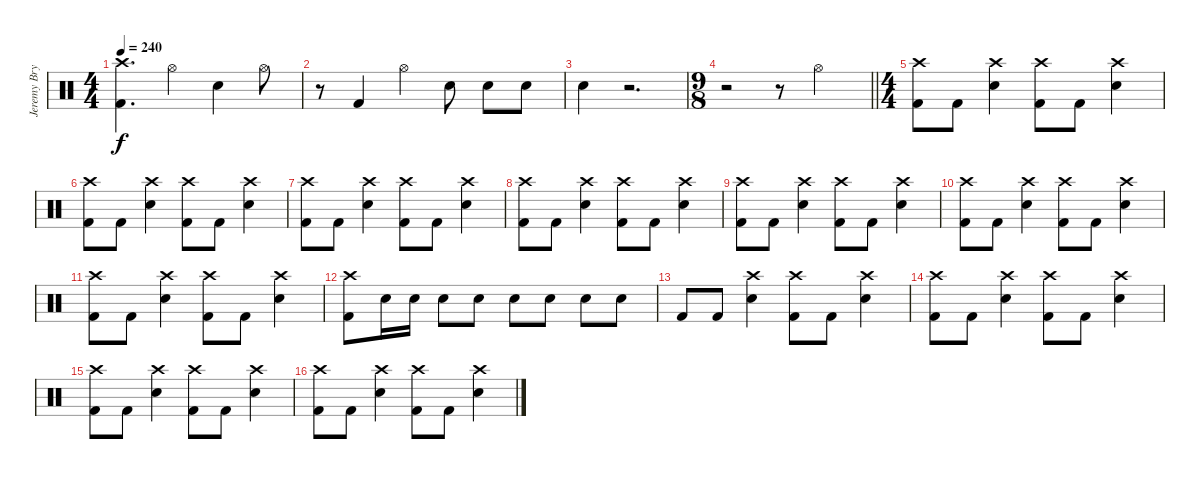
\track ("Jeremy Bryan - Drums" "Jeremy Bry") {instrument percussion}
\staff {score}
\articulation defaults
\ts (4 4)
\tempo 240
\clef neutral
\ks c
("Crash high (hit)" "Kick (hit) 2").4{d dy f} "Hi-Hat (open)".4 "Electric Snare (hit)".4 "Hi-Hat (open)".8 |
r.8 "Kick (hit) 2".4 "Hi-Hat (open)".4 "Electric Snare (hit)".8 "Electric Snare (hit)".8 "Electric Snare (hit)".8 |
"Electric Snare (hit)".4 r.2{d} |
\ts (9 8)
\barLineRight lightlight
r.2 r.8 "Hi-Hat (open)".2 |
\ts (4 4)
("Crash high (hit)" "Kick (hit) 2").8 "Kick (hit) 2".8 ("Crash high (hit)" "Electric Snare (hit)").4 ("Crash high (hit)" "Kick (hit) 2").8 "Kick (hit) 2".8 ("Crash high (hit)" "Electric Snare (hit)").4 |
("Crash high (hit)" "Kick (hit) 2").8 "Kick (hit) 2".8 ("Crash high (hit)" "Electric Snare (hit)").4 ("Crash high (hit)" "Kick (hit) 2").8 "Kick (hit) 2".8 ("Crash high (hit)" "Electric Snare (hit)").4 |
("Crash high (hit)" "Kick (hit) 2").8 "Kick (hit) 2".8 ("Crash high (hit)" "Electric Snare (hit)").4 ("Crash high (hit)" "Kick (hit) 2").8 "Kick (hit) 2".8 ("Crash high (hit)" "Electric Snare (hit)").4 |
("Crash high (hit)" "Kick (hit) 2").8 "Kick (hit) 2".8 ("Crash high (hit)" "Electric Snare (hit)").4 ("Crash high (hit)" "Kick (hit) 2").8 "Kick (hit) 2".8 ("Crash high (hit)" "Electric Snare (hit)").4 |
("Crash high (hit)" "Kick (hit) 2").8 "Kick (hit) 2".8 ("Crash high (hit)" "Electric Snare (hit)").4 ("Crash high (hit)" "Kick (hit) 2").8 "Kick (hit) 2".8 ("Crash high (hit)" "Electric Snare (hit)").4 |
("Crash high (hit)" "Kick (hit) 2").8 "Kick (hit) 2".8 ("Crash high (hit)" "Electric Snare (hit)").4 ("Crash high (hit)" "Kick (hit) 2").8 "Kick (hit) 2".8 ("Crash high (hit)" "Electric Snare (hit)").4 |
("Crash high (hit)" "Kick (hit) 2").8 "Kick (hit) 2".8 ("Crash high (hit)" "Electric Snare (hit)").4 ("Crash high (hit)" "Kick (hit) 2").8 "Kick (hit) 2".8 ("Crash high (hit)" "Electric Snare (hit)").4 |
("Crash high (hit)" "Kick (hit) 2").8 "Electric Snare (hit)".16 "Electric Snare (hit)".16 "Electric Snare (hit)".8 "Electric Snare (hit)".8 "Electric Snare (hit)".8 "Electric Snare (hit)".8 "Electric Snare (hit)".8 "Electric Snare (hit)".8 |
"Kick (hit) 2".8 "Kick (hit) 2".8 ("Crash high (hit)" "Electric Snare (hit)").4 ("Crash high (hit)" "Kick (hit) 2").8 "Kick (hit) 2".8 ("Crash high (hit)" "Electric Snare (hit)").4 |
("Crash high (hit)" "Kick (hit) 2").8 "Kick (hit) 2".8 ("Crash high (hit)" "Electric Snare (hit)").4 ("Crash high (hit)" "Kick (hit) 2").8 "Kick (hit) 2".8 ("Crash high (hit)" "Electric Snare (hit)").4 |
("Crash high (hit)" "Kick (hit) 2").8 "Kick (hit) 2".8 ("Crash high (hit)" "Electric Snare (hit)").4 ("Crash high (hit)" "Kick (hit) 2").8 "Kick (hit) 2".8 ("Crash high (hit)" "Electric Snare (hit)").4 |
("Crash high (hit)" "Kick (hit) 2").8 "Kick (hit) 2".8 ("Crash high (hit)" "Electric Snare (hit)").4 ("Crash high (hit)" "Kick (hit) 2").8 "Kick (hit) 2".8 ("Crash high (hit)" "Electric Snare (hit)").4
